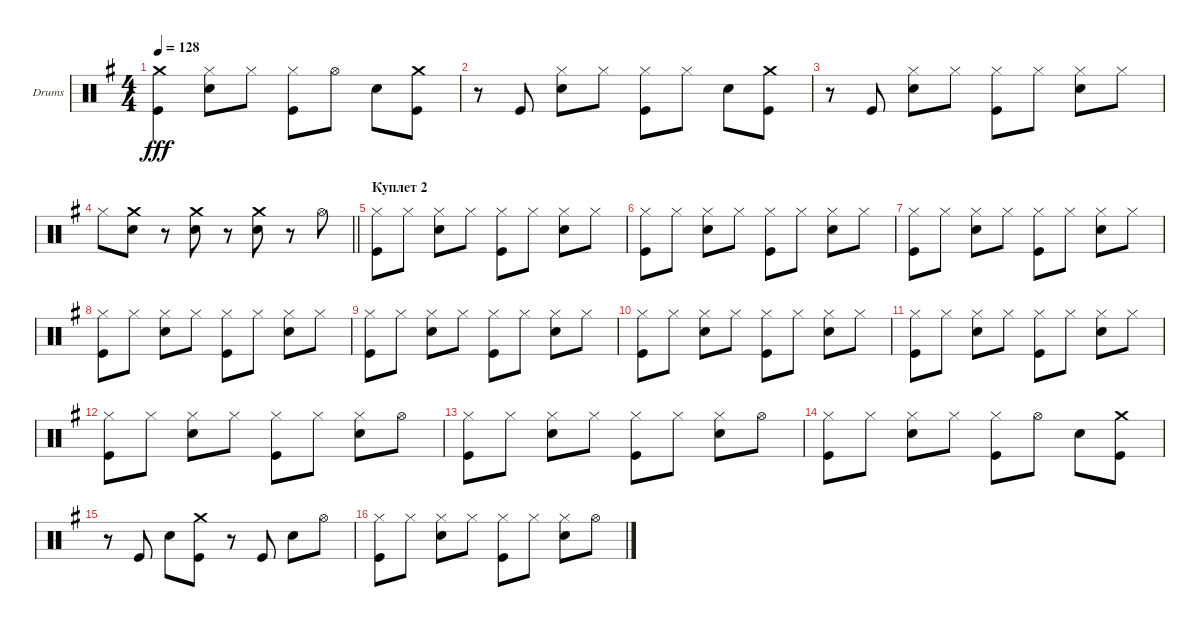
\bracketExtendMode groupsimilarinstruments
\firstSystemTrackNameOrientation horizontal
\otherSystemsTrackNameOrientation horizontal
\track ("Барабаны" "Drums") {instrument percussion}
\staff {score}
\articulation defaults
\ts (4 4)
\tempo 128
\clef neutral
\ks eminor
("Crash medium (hit)" "Kick (hit)").4{dy fff} ("Hi-Hat (closed)" "Snare (hit) 2").8 "Hi-Hat (closed)".8 ("Hi-Hat (closed)" "Kick (hit)").8 "Hi-Hat (open)".8 "Snare (hit) 2".8 ("Kick (hit)" "Crash medium (hit)").8 |
r.8 "Kick (hit)".8 ("Hi-Hat (closed)" "Snare (hit) 2").8 "Hi-Hat (closed)".8 ("Hi-Hat (closed)" "Kick (hit)").8 "Hi-Hat (closed)".8 "Snare (hit) 2".8 ("Kick (hit)" "Crash medium (hit)").8 |
r.8 "Kick (hit)".8 ("Hi-Hat (closed)" "Snare (hit) 2").8 "Hi-Hat (closed)".8 ("Hi-Hat (closed)" "Kick (hit)").8 "Hi-Hat (closed)".8 ("Hi-Hat (closed)" "Snare (hit) 2").8 "Hi-Hat (closed)".8 |
\barLineRight lightlight "Hi-Hat (closed)".8
("Snare (hit) 2" "Crash medium (hit)").8 r.8 ("Snare (hit) 2" "Crash medium (hit)").8 r.8 ("Snare (hit) 2" "Crash medium (hit)").8 r.8 "Hi-Hat (open)".8 |
\section ("" "Куплет 2")
("Hi-Hat (closed)" "Kick (hit)").8 "Hi-Hat (closed)".8 ("Hi-Hat (closed)" "Snare (hit) 2").8 "Hi-Hat (closed)".8 ("Hi-Hat (closed)" "Kick (hit)").8 "Hi-Hat (closed)".8 ("Hi-Hat (closed)" "Snare (hit) 2").8 "Hi-Hat (closed)".8 |
("Hi-Hat (closed)" "Kick (hit)").8 "Hi-Hat (closed)".8 ("Hi-Hat (closed)" "Snare (hit) 2").8 "Hi-Hat (closed)".8 ("Hi-Hat (closed)" "Kick (hit)").8 "Hi-Hat (closed)".8 ("Hi-Hat (closed)" "Snare (hit) 2").8 "Hi-Hat (closed)".8 |
("Hi-Hat (closed)" "Kick (hit)").8 "Hi-Hat (closed)".8 ("Hi-Hat (closed)" "Snare (hit) 2").8 "Hi-Hat (closed)".8 ("Hi-Hat (closed)" "Kick (hit)").8 "Hi-Hat (closed)".8 ("Hi-Hat (closed)" "Snare (hit) 2").8 "Hi-Hat (closed)".8 |
("Hi-Hat (closed)" "Kick (hit)").8 "Hi-Hat (closed)".8 ("Hi-Hat (closed)" "Snare (hit) 2").8 "Hi-Hat (closed)".8 ("Hi-Hat (closed)" "Kick (hit)").8 "Hi-Hat (closed)".8 ("Hi-Hat (closed)" "Snare (hit) 2").8 "Hi-Hat (closed)".8 |
("Hi-Hat (closed)" "Kick (hit)").8 "Hi-Hat (closed)".8 ("Hi-Hat (closed)" "Snare (hit) 2").8 "Hi-Hat (closed)".8 ("Hi-Hat (closed)" "Kick (hit)").8 "Hi-Hat (closed)".8 ("Hi-Hat (closed)" "Snare (hit) 2").8 "Hi-Hat (closed)".8 |
("Hi-Hat (closed)" "Kick (hit)").8 "Hi-Hat (closed)".8 ("Hi-Hat (closed)" "Snare (hit) 2").8 "Hi-Hat (closed)".8 ("Hi-Hat (closed)" "Kick (hit)").8 "Hi-Hat (closed)".8 ("Hi-Hat (closed)" "Snare (hit) 2").8 "Hi-Hat (closed)".8 |
("Hi-Hat (closed)" "Kick (hit)").8 "Hi-Hat (closed)".8 ("Hi-Hat (closed)" "Snare (hit) 2").8 "Hi-Hat (closed)".8 ("Hi-Hat (closed)" "Kick (hit)").8 "Hi-Hat (closed)".8 ("Hi-Hat (closed)" "Snare (hit) 2").8 "Hi-Hat (closed)".8 |
("Hi-Hat (closed)" "Kick (hit)").8 "Hi-Hat (closed)".8 ("Hi-Hat (closed)" "Snare (hit) 2").8 "Hi-Hat (closed)".8 ("Hi-Hat (closed)" "Kick (hit)").8 "Hi-Hat (closed)".8 ("Hi-Hat (closed)" "Snare (hit) 2").8 "Hi-Hat (open)".8 |
("Hi-Hat (closed)" "Kick (hit)").8 "Hi-Hat (closed)".8 ("Hi-Hat (closed)" "Snare (hit) 2").8 "Hi-Hat (closed)".8 ("Hi-Hat (closed)" "Kick (hit)").8 "Hi-Hat (closed)".8 ("Hi-Hat (closed)" "Snare (hit) 2").8 "Hi-Hat (open)".8 |
("Hi-Hat (closed)" "Kick (hit)").8 "Hi-Hat (closed)".8 ("Hi-Hat (closed)" "Snare (hit) 2").8 "Hi-Hat (closed)".8 ("Hi-Hat (closed)" "Kick (hit)").8 "Hi-Hat (open)".8 "Snare (hit) 2".8 ("Kick (hit)" "Crash medium (hit)").8 |
r.8 "Kick (hit)".8 "Snare (hit) 2".8 ("Kick (hit)" "Crash medium (hit)").8 r.8 "Kick (hit)".8 "Snare (hit) 2".8 "Hi-Hat (open)".8 |
("Hi-Hat (closed)" "Kick (hit)").8 "Hi-Hat (closed)".8 ("Hi-Hat (closed)" "Snare (hit) 2").8 "Hi-Hat (closed)".8 ("Hi-Hat (closed)" "Kick (hit)").8 "Hi-Hat (closed)".8 ("Hi-Hat (closed)" "Snare (hit) 2").8 "Hi-Hat (open)".8
